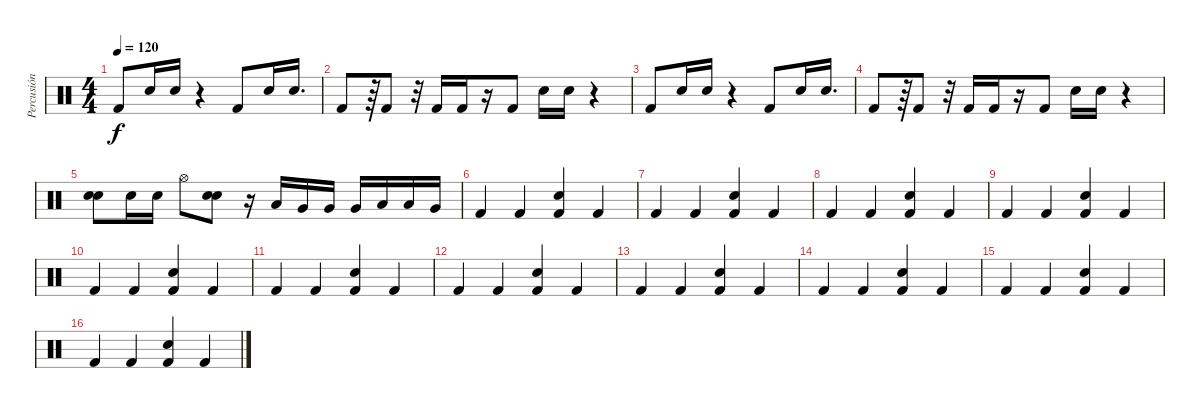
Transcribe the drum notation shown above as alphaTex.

\track ("Percusión" "Percusión") {instrument percussion}
\staff {score}
\articulation defaults
\ts (4 4)
\tempo 120
\clef neutral
\ks c "Kick (hit) 2".8{dy f} "Snare (hit) 2".16 "Snare (hit) 2".16
r.4 "Kick (hit) 2".8 "Snare (hit) 2".16 "Snare (hit) 2".16{d} |
"Kick (hit) 2".8 r.64 "Kick (hit) 2".8 r.32 "Kick (hit) 2".16 "Kick (hit) 2".16 r.16 "Kick (hit) 2".8 "Snare (hit) 2".16 "Snare (hit) 2".16 r.4 |
"Kick (hit) 2".8 "Snare (hit) 2".16 "Snare (hit) 2".16 r.4 "Kick (hit) 2".8 "Snare (hit) 2".16 "Snare (hit) 2".16{d} |
"Kick (hit) 2".8 r.64 "Kick (hit) 2".8 r.32 "Kick (hit) 2".16 "Kick (hit) 2".16 r.16 "Kick (hit) 2".8 "Snare (hit) 2".16 "Snare (hit) 2".16 r.4 |
("Electric Snare (hit)" "Snare (hit) 2").8 "Snare (hit) 2".16 "Snare (hit) 2".16 "Hi-Hat (open)".8 ("Electric Snare (hit)" "Snare (hit) 2").8 r.16 "Low Floor Tom (hit)".16 "Very Low Tom (hit)".16 "Very Low Tom (hit)".16 "Very Low Tom (hit)".16 "Low Floor Tom (hit)".16 "Low Floor Tom (hit)".16 "Very Low Tom (hit)".16 |
"Kick (hit) 2".4 "Kick (hit) 2".4 ("Kick (hit) 2" "Snare (hit) 2").4 "Kick (hit) 2".4 |
"Kick (hit) 2".4 "Kick (hit) 2".4 ("Kick (hit) 2" "Snare (hit) 2").4 "Kick (hit) 2".4 |
"Kick (hit) 2".4 "Kick (hit) 2".4 ("Kick (hit) 2" "Snare (hit) 2").4 "Kick (hit) 2".4 |
"Kick (hit) 2".4 "Kick (hit) 2".4 ("Kick (hit) 2" "Snare (hit) 2").4 "Kick (hit) 2".4 |
"Kick (hit) 2".4 "Kick (hit) 2".4 ("Kick (hit) 2" "Snare (hit) 2").4 "Kick (hit) 2".4 |
"Kick (hit) 2".4 "Kick (hit) 2".4 ("Kick (hit) 2" "Snare (hit) 2").4 "Kick (hit) 2".4 |
"Kick (hit) 2".4 "Kick (hit) 2".4 ("Kick (hit) 2" "Snare (hit) 2").4 "Kick (hit) 2".4 |
"Kick (hit) 2".4 "Kick (hit) 2".4 ("Kick (hit) 2" "Snare (hit) 2").4 "Kick (hit) 2".4 |
"Kick (hit) 2".4 "Kick (hit) 2".4 ("Kick (hit) 2" "Snare (hit) 2").4 "Kick (hit) 2".4 |
"Kick (hit) 2".4 "Kick (hit) 2".4 ("Kick (hit) 2" "Snare (hit) 2").4 "Kick (hit) 2".4 |
"Kick (hit) 2".4 "Kick (hit) 2".4 ("Kick (hit) 2" "Snare (hit) 2").4 "Kick (hit) 2".4
